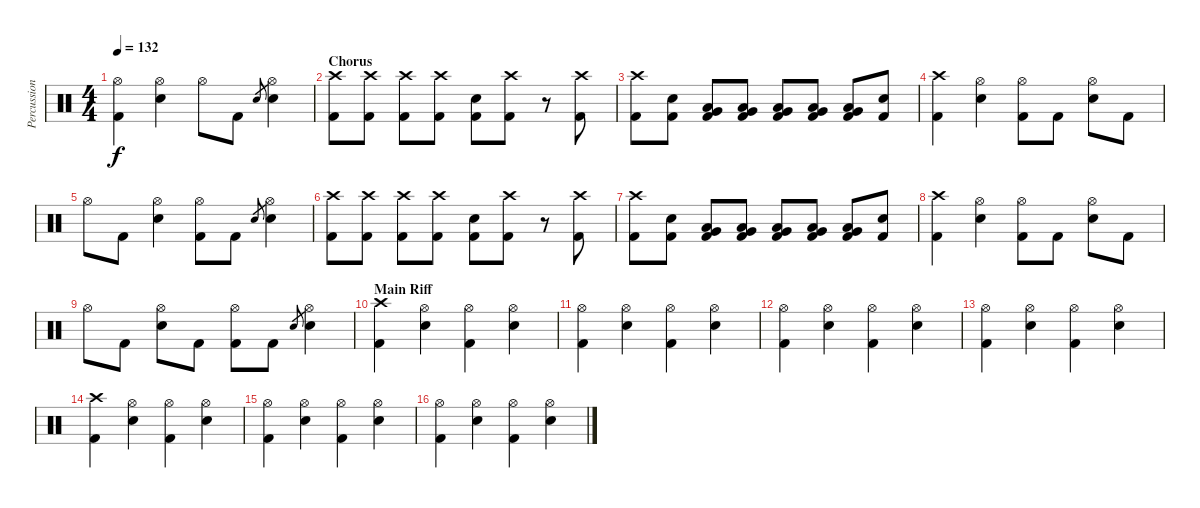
\track ("Percussion" "Percussion") {instrument percussion}
\staff {score}
\articulation defaults
\ts (4 4)
\tempo 132
\clef neutral
\ks c
("Kick (hit) 2" "Hi-Hat (open)").4{dy f} ("Electric Snare (hit)" "Hi-Hat (open)").4 "Hi-Hat (open)".8 "Kick (hit) 2".8 "Electric Snare (hit)".8{gr} ("Electric Snare (hit)" "Hi-Hat (open)").4 |
\section ("" "Chorus")
("Kick (hit) 2" "Crash high (hit)").8 ("Kick (hit) 2" "Crash high (hit)").8 ("Kick (hit) 2" "Crash high (hit)").8 ("Kick (hit) 2" "Crash high (hit)").8 ("Kick (hit) 2" "Electric Snare (hit)").8 ("Kick (hit) 2" "Crash high (hit)").8 r.8 ("Kick (hit) 2" "Crash high (hit)").8 |
("Kick (hit) 2" "Crash high (hit)").8 ("Kick (hit) 2" "Electric Snare (hit)").8 ("Kick (hit) 2" "Low Tom (hit)" "Very Low Tom (hit)").8 ("Kick (hit) 2" "Low Tom (hit)" "Very Low Tom (hit)").8 ("Kick (hit) 2" "Low Tom (hit)" "Very Low Tom (hit)").8 ("Kick (hit) 2" "Low Tom (hit)" "Very Low Tom (hit)").8 ("Kick (hit) 2" "Low Tom (hit)" "Very Low Tom (hit)").8 ("Kick (hit) 2" "Electric Snare (hit)").8 |
("Kick (hit) 2" "Crash high (hit)").4 ("Electric Snare (hit)" "Hi-Hat (open)").4 ("Kick (hit) 2" "Hi-Hat (open)").8 "Kick (hit) 2".8 ("Electric Snare (hit)" "Hi-Hat (open)").8 "Kick (hit) 2".8 |
"Hi-Hat (open)".8 "Kick (hit) 2".8 ("Electric Snare (hit)" "Hi-Hat (open)").4 ("Kick (hit) 2" "Hi-Hat (open)").8 "Kick (hit) 2".8 "Electric Snare (hit)".8{gr} ("Electric Snare (hit)" "Hi-Hat (open)").4 |
("Kick (hit) 2" "Crash high (hit)").8 ("Kick (hit) 2" "Crash high (hit)").8 ("Kick (hit) 2" "Crash high (hit)").8 ("Kick (hit) 2" "Crash high (hit)").8 ("Kick (hit) 2" "Electric Snare (hit)").8 ("Kick (hit) 2" "Crash high (hit)").8 r.8 ("Kick (hit) 2" "Crash high (hit)").8 |
("Kick (hit) 2" "Crash high (hit)").8 ("Kick (hit) 2" "Electric Snare (hit)").8 ("Kick (hit) 2" "Low Tom (hit)" "Very Low Tom (hit)").8 ("Kick (hit) 2" "Low Tom (hit)" "Very Low Tom (hit)").8 ("Kick (hit) 2" "Low Tom (hit)" "Very Low Tom (hit)").8 ("Kick (hit) 2" "Low Tom (hit)" "Very Low Tom (hit)").8 ("Kick (hit) 2" "Low Tom (hit)" "Very Low Tom (hit)").8 ("Kick (hit) 2" "Electric Snare (hit)").8 |
("Kick (hit) 2" "Crash high (hit)").4 ("Electric Snare (hit)" "Hi-Hat (open)").4 ("Kick (hit) 2" "Hi-Hat (open)").8 "Kick (hit) 2".8 ("Electric Snare (hit)" "Hi-Hat (open)").8 "Kick (hit) 2".8 |
"Hi-Hat (open)".8 "Kick (hit) 2".8 ("Electric Snare (hit)" "Hi-Hat (open)").8 "Kick (hit) 2".8 ("Kick (hit) 2" "Hi-Hat (open)").8 "Kick (hit) 2".8 "Electric Snare (hit)".8{gr} ("Electric Snare (hit)" "Hi-Hat (open)").4 |
\section ("" "Main Riff")
("Kick (hit) 2" "Crash high (hit)").4 ("Electric Snare (hit)" "Hi-Hat (open)").4 ("Kick (hit) 2" "Hi-Hat (open)").4 ("Electric Snare (hit)" "Hi-Hat (open)").4 |
("Kick (hit) 2" "Hi-Hat (open)").4 ("Electric Snare (hit)" "Hi-Hat (open)").4 ("Kick (hit) 2" "Hi-Hat (open)").4 ("Electric Snare (hit)" "Hi-Hat (open)").4 |
("Kick (hit) 2" "Hi-Hat (open)").4 ("Electric Snare (hit)" "Hi-Hat (open)").4 ("Kick (hit) 2" "Hi-Hat (open)").4 ("Electric Snare (hit)" "Hi-Hat (open)").4 |
("Kick (hit) 2" "Hi-Hat (open)").4 ("Electric Snare (hit)" "Hi-Hat (open)").4 ("Kick (hit) 2" "Hi-Hat (open)").4 ("Electric Snare (hit)" "Hi-Hat (open)").4 |
("Kick (hit) 2" "Crash high (hit)").4 ("Electric Snare (hit)" "Hi-Hat (open)").4 ("Kick (hit) 2" "Hi-Hat (open)").4 ("Electric Snare (hit)" "Hi-Hat (open)").4 |
("Kick (hit) 2" "Hi-Hat (open)").4 ("Electric Snare (hit)" "Hi-Hat (open)").4 ("Kick (hit) 2" "Hi-Hat (open)").4 ("Electric Snare (hit)" "Hi-Hat (open)").4 |
("Kick (hit) 2" "Hi-Hat (open)").4 ("Electric Snare (hit)" "Hi-Hat (open)").4 ("Kick (hit) 2" "Hi-Hat (open)").4 ("Electric Snare (hit)" "Hi-Hat (open)").4
